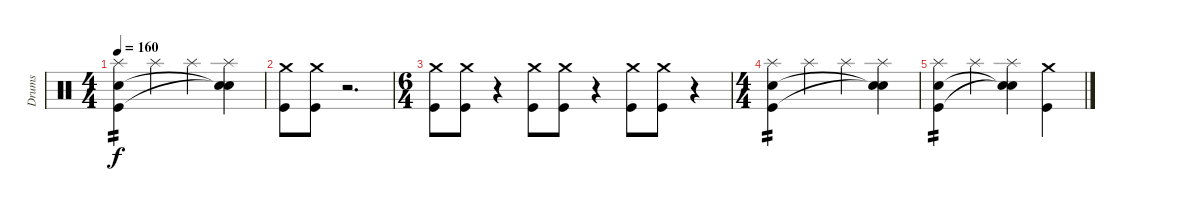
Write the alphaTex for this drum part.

\track ("Drums" "Drums") {instrument percussion}
\staff {score}
\articulation defaults
\ts (4 4)
\tempo 160
\clef neutral
\ks c
("Splash (hit)" "Electric Snare (hit)" "Kick (hit)").4{tp 2 dy f} "Splash (hit)".4 "Splash (hit)".4 ("Splash (hit)" "Snare (hit)"{t} "Snare (hit)"{t}).4 |
("Crash medium (hit)" "Kick (hit)").8 ("Crash medium (hit)" "Kick (hit)").8 r.2{d} |
\ts (6 4)
("Crash medium (hit)" "Kick (hit)").8 ("Crash medium (hit)" "Kick (hit)").8 r.4 ("Crash medium (hit)" "Kick (hit)").8 ("Crash medium (hit)" "Kick (hit)").8 r.4 ("Crash medium (hit)" "Kick (hit)").8 ("Crash medium (hit)" "Kick (hit)").8 r.4 |
\ts (4 4)
("Splash (hit)" "Electric Snare (hit)" "Kick (hit)").4{tp 2} "Splash (hit)".4 "Splash (hit)".4 ("Splash (hit)" "Snare (hit)"{t} "Snare (hit)"{t}).4 |
("Splash (hit)" "Electric Snare (hit)" "Kick (hit)").4{tp 2} "Splash (hit)".4 ("Splash (hit)" "Snare (hit)"{t} "Snare (hit)"{t}).4 ("Crash medium (hit)" "Kick (hit)").4
